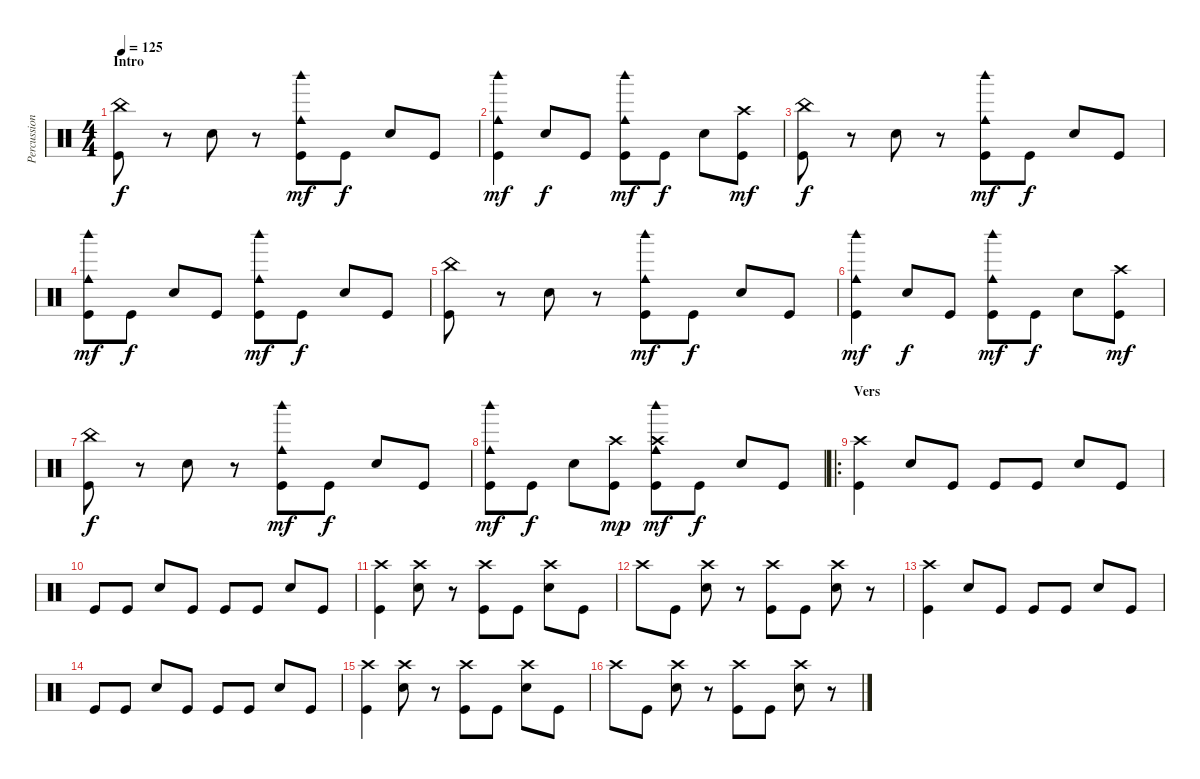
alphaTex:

\track ("Percussion" "Percussion") {instrument percussion}
\staff {score}
\articulation defaults
\ts (4 4)
\section ("" "Intro")
\tempo 125
\clef neutral
\ks c
("China (hit)" "Kick (hit)").8{dy f} r.8 "Snare (hit) 2".8 r.8 ("Woodblock high (hit)" "Cowbell medium (hit)" "Kick (hit)").8{dy mf} "Kick (hit)".8{dy f} "Snare (hit) 2".8 "Kick (hit)".8 |
("Woodblock high (hit)" "Cowbell medium (hit)" "Kick (hit)").4{dy mf} "Snare (hit) 2".8{dy f} "Kick (hit)".8 ("Woodblock high (hit)" "Cowbell medium (hit)" "Kick (hit)").8{dy mf} "Kick (hit)".8{dy f} "Snare (hit) 2".8 ("Crash high (hit)" "Kick (hit)").8{dy mf} |
("China (hit)" "Kick (hit)").8{dy f} r.8 "Snare (hit) 2".8 r.8 ("Woodblock high (hit)" "Cowbell medium (hit)" "Kick (hit)").8{dy mf} "Kick (hit)".8{dy f} "Snare (hit) 2".8 "Kick (hit)".8 |
("Woodblock high (hit)" "Cowbell medium (hit)" "Kick (hit)").8{dy mf} "Kick (hit)".8{dy f} "Snare (hit) 2".8 "Kick (hit)".8 ("Woodblock high (hit)" "Cowbell medium (hit)" "Kick (hit)").8{dy mf} "Kick (hit)".8{dy f} "Snare (hit) 2".8 "Kick (hit)".8 |
("China (hit)" "Kick (hit)").8 r.8 "Snare (hit) 2".8 r.8 ("Woodblock high (hit)" "Cowbell medium (hit)" "Kick (hit)").8{dy mf} "Kick (hit)".8{dy f} "Snare (hit) 2".8 "Kick (hit)".8 |
("Woodblock high (hit)" "Cowbell medium (hit)" "Kick (hit)").4{dy mf} "Snare (hit) 2".8{dy f} "Kick (hit)".8 ("Woodblock high (hit)" "Cowbell medium (hit)" "Kick (hit)").8{dy mf} "Kick (hit)".8{dy f} "Snare (hit) 2".8 ("Crash high (hit)" "Kick (hit)").8{dy mf} |
("China (hit)" "Kick (hit)").8{dy f} r.8 "Snare (hit) 2".8 r.8 ("Woodblock high (hit)" "Cowbell medium (hit)" "Kick (hit)").8{dy mf} "Kick (hit)".8{dy f} "Snare (hit) 2".8 "Kick (hit)".8 |
("Woodblock high (hit)" "Cowbell medium (hit)" "Kick (hit)").8{dy mf} "Kick (hit)".8{dy f} "Snare (hit) 2".8 ("Crash high (hit)" "Kick (hit)").8{dy mp} ("Crash high (hit)" "Woodblock high (hit)" "Cowbell medium (hit)" "Kick (hit)").8{dy mf} "Kick (hit)".8{dy f} "Snare (hit) 2".8 "Kick (hit)".8 |
\ro
\section ("" "Vers")
("Crash high (hit)" "Kick (hit)").4 "Snare (hit) 2".8 "Kick (hit)".8 "Kick (hit)".8 "Kick (hit)".8 "Snare (hit) 2".8 "Kick (hit)".8 |
"Kick (hit)".8 "Kick (hit)".8 "Snare (hit) 2".8 "Kick (hit)".8 "Kick (hit)".8 "Kick (hit)".8 "Snare (hit) 2".8 "Kick (hit)".8 |
("Crash high (hit)" "Kick (hit)").4 ("Crash high (hit)" "Snare (hit) 2").8 r.8 ("Crash high (hit)" "Kick (hit)").8 "Kick (hit)".8 ("Crash high (hit)" "Snare (hit) 2").8 "Kick (hit)".8 |
"Crash high (hit)".8 "Kick (hit)".8 ("Crash high (hit)" "Snare (hit) 2").8 r.8 ("Crash high (hit)" "Kick (hit)").8 "Kick (hit)".8 ("Crash high (hit)" "Snare (hit) 2").8 r.8 |
("Crash high (hit)" "Kick (hit)").4 "Snare (hit) 2".8 "Kick (hit)".8 "Kick (hit)".8 "Kick (hit)".8 "Snare (hit) 2".8 "Kick (hit)".8 |
"Kick (hit)".8 "Kick (hit)".8 "Snare (hit) 2".8 "Kick (hit)".8 "Kick (hit)".8 "Kick (hit)".8 "Snare (hit) 2".8 "Kick (hit)".8 |
("Crash high (hit)" "Kick (hit)").4 ("Crash high (hit)" "Snare (hit) 2").8 r.8 ("Crash high (hit)" "Kick (hit)").8 "Kick (hit)".8 ("Crash high (hit)" "Snare (hit) 2").8 "Kick (hit)".8 |
"Crash high (hit)".8 "Kick (hit)".8 ("Crash high (hit)" "Snare (hit) 2").8 r.8 ("Crash high (hit)" "Kick (hit)").8 "Kick (hit)".8 ("Crash high (hit)" "Snare (hit) 2").8 r.8
